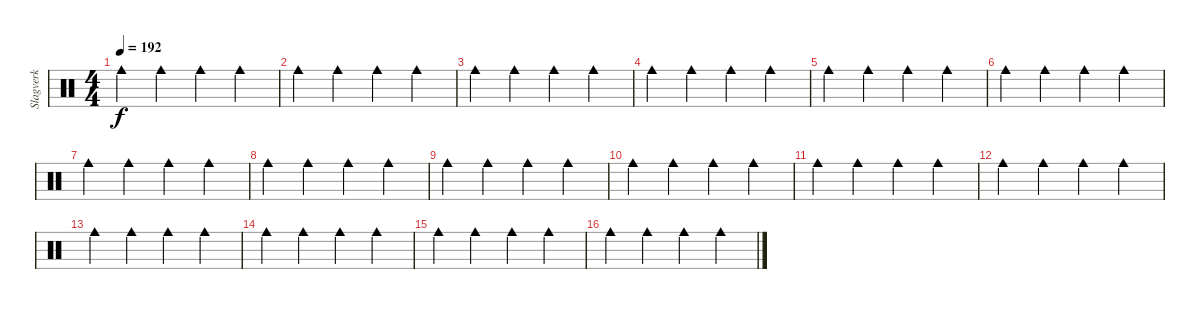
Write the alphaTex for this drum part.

\track ("Slagverk" "Slagverk") {instrument percussion}
\staff {score}
\articulation defaults
\ts (4 4)
\tempo 192
\clef neutral
\ks c "Cowbell medium (hit)".4{dy f} "Cowbell medium (hit)".4 "Cowbell medium (hit)".4 "Cowbell medium (hit)".4
|
"Cowbell medium (hit)".4 "Cowbell medium (hit)".4 "Cowbell medium (hit)".4 "Cowbell medium (hit)".4 |
"Cowbell medium (hit)".4 "Cowbell medium (hit)".4 "Cowbell medium (hit)".4 "Cowbell medium (hit)".4 |
"Cowbell medium (hit)".4 "Cowbell medium (hit)".4 "Cowbell medium (hit)".4 "Cowbell medium (hit)".4 |
"Cowbell medium (hit)".4 "Cowbell medium (hit)".4 "Cowbell medium (hit)".4 "Cowbell medium (hit)".4 |
"Cowbell medium (hit)".4 "Cowbell medium (hit)".4 "Cowbell medium (hit)".4 "Cowbell medium (hit)".4 |
"Cowbell medium (hit)".4 "Cowbell medium (hit)".4 "Cowbell medium (hit)".4 "Cowbell medium (hit)".4 |
"Cowbell medium (hit)".4 "Cowbell medium (hit)".4 "Cowbell medium (hit)".4 "Cowbell medium (hit)".4 |
"Cowbell medium (hit)".4 "Cowbell medium (hit)".4 "Cowbell medium (hit)".4 "Cowbell medium (hit)".4 |
"Cowbell medium (hit)".4 "Cowbell medium (hit)".4 "Cowbell medium (hit)".4 "Cowbell medium (hit)".4 |
"Cowbell medium (hit)".4 "Cowbell medium (hit)".4 "Cowbell medium (hit)".4 "Cowbell medium (hit)".4 |
"Cowbell medium (hit)".4 "Cowbell medium (hit)".4 "Cowbell medium (hit)".4 "Cowbell medium (hit)".4 |
"Cowbell medium (hit)".4 "Cowbell medium (hit)".4 "Cowbell medium (hit)".4 "Cowbell medium (hit)".4 |
"Cowbell medium (hit)".4 "Cowbell medium (hit)".4 "Cowbell medium (hit)".4 "Cowbell medium (hit)".4 |
"Cowbell medium (hit)".4 "Cowbell medium (hit)".4 "Cowbell medium (hit)".4 "Cowbell medium (hit)".4 |
"Cowbell medium (hit)".4 "Cowbell medium (hit)".4 "Cowbell medium (hit)".4 "Cowbell medium (hit)".4
